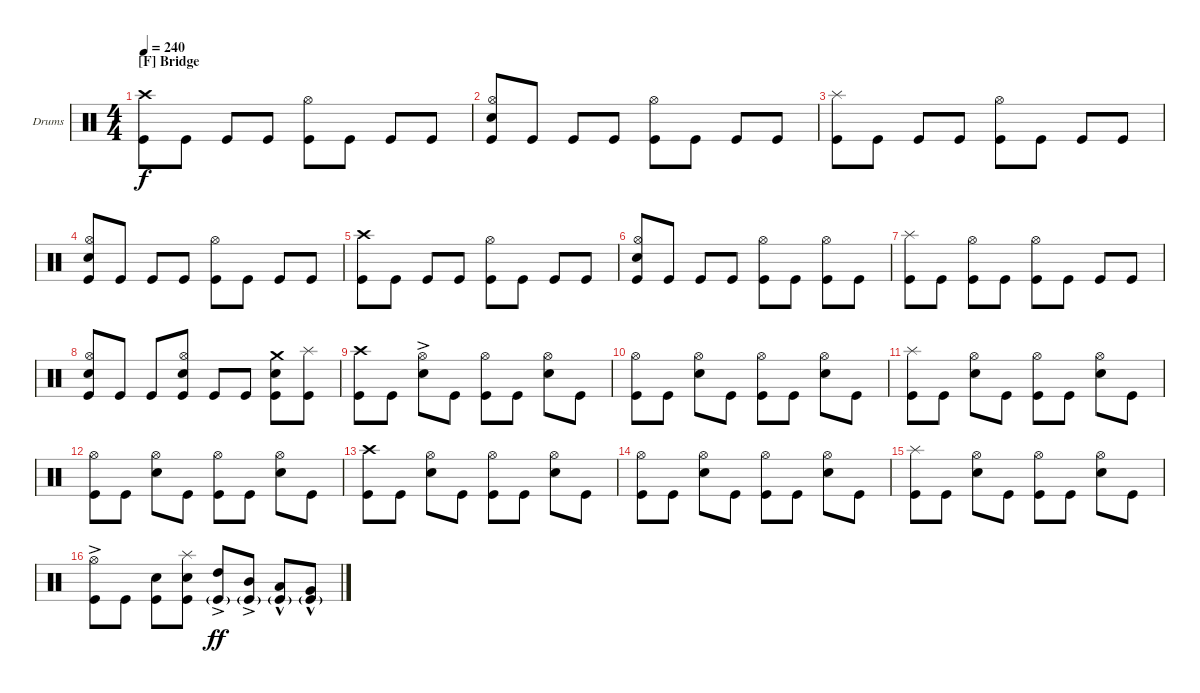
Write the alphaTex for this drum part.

\defaultSystemsLayout 4
\bracketExtendMode groupsimilarinstruments
\firstSystemTrackNameOrientation horizontal
\otherSystemsTrackNameOrientation horizontal
\track ("Drumkit" "Drums") {instrument percussion}
\staff {score}
\articulation defaults
\ts (4 4)
\section ("F" "Bridge")
\tempo 240
\clef neutral
\ks c
("Kick (hit)" "Crash high (hit)").8{dy f} "Kick (hit)".8 "Kick (hit)".8 "Kick (hit)".8 ("Kick (hit)" "Hi-Hat (open)").8 "Kick (hit)".8 "Kick (hit)".8 "Kick (hit)".8 |
("Kick (hit)" "Snare (hit) 2" "Hi-Hat (open)").8 "Kick (hit)".8 "Kick (hit)".8 "Kick (hit)".8 ("Kick (hit)" "Hi-Hat (open)").8 "Kick (hit)".8 "Kick (hit)".8 "Kick (hit)".8 |
("Splash (hit)" "Kick (hit)").8 "Kick (hit)".8 "Kick (hit)".8 "Kick (hit)".8 ("Kick (hit)" "Hi-Hat (open)").8 "Kick (hit)".8 "Kick (hit)".8 "Kick (hit)".8 |
("Kick (hit)" "Snare (hit) 2" "Hi-Hat (open)").8 "Kick (hit)".8 "Kick (hit)".8 "Kick (hit)".8 ("Kick (hit)" "Hi-Hat (open)").8 "Kick (hit)".8 "Kick (hit)".8 "Kick (hit)".8 |
("Kick (hit)" "Crash high (hit)").8 "Kick (hit)".8 "Kick (hit)".8 "Kick (hit)".8 ("Kick (hit)" "Hi-Hat (open)").8 "Kick (hit)".8 "Kick (hit)".8 "Kick (hit)".8 |
("Kick (hit)" "Snare (hit) 2" "Hi-Hat (open)").8 "Kick (hit)".8 "Kick (hit)".8 "Kick (hit)".8 ("Kick (hit)" "Hi-Hat (open)").8 "Kick (hit)".8 ("Kick (hit)" "Hi-Hat (open)").8 "Kick (hit)".8 |
("Splash (hit)" "Kick (hit)").8 "Kick (hit)".8 ("Kick (hit)" "Hi-Hat (open)").8 "Kick (hit)".8 ("Kick (hit)" "Hi-Hat (open)").8 "Kick (hit)".8 "Kick (hit)".8 "Kick (hit)".8 |
("Kick (hit)" "Snare (hit) 2" "Hi-Hat (open)").8 "Kick (hit)".8 "Kick (hit)".8 ("Kick (hit)" "Snare (hit) 2" "Hi-Hat (open)").8 "Kick (hit)".8 "Kick (hit)".8 ("Kick (hit)" "Snare (hit) 2" "Crash medium (hit)").8 ("Kick (hit)" "Splash (hit)").8 |
("Kick (hit)" "Crash high (hit)").8 "Kick (hit)".8 ("Snare (hit) 2" "Hi-Hat (open)"{ac}).8 "Kick (hit)".8 ("Kick (hit)" "Hi-Hat (open)").8 "Kick (hit)".8 ("Snare (hit) 2" "Hi-Hat (open)").8 "Kick (hit)".8 |
("Kick (hit)" "Hi-Hat (open)").8 "Kick (hit)".8 ("Snare (hit) 2" "Hi-Hat (open)").8 "Kick (hit)".8 ("Kick (hit)" "Hi-Hat (open)").8 "Kick (hit)".8 ("Snare (hit) 2" "Hi-Hat (open)").8 "Kick (hit)".8 |
("Kick (hit)" "Splash (hit)").8 "Kick (hit)".8 ("Snare (hit) 2" "Hi-Hat (open)").8 "Kick (hit)".8 ("Kick (hit)" "Hi-Hat (open)").8 "Kick (hit)".8 ("Snare (hit) 2" "Hi-Hat (open)").8 "Kick (hit)".8 |
("Kick (hit)" "Hi-Hat (open)").8 "Kick (hit)".8 ("Snare (hit) 2" "Hi-Hat (open)").8 "Kick (hit)".8 ("Kick (hit)" "Hi-Hat (open)").8 "Kick (hit)".8 ("Snare (hit) 2" "Hi-Hat (open)").8 "Kick (hit)".8 |
("Kick (hit)" "Crash high (hit)").8 "Kick (hit)".8 ("Snare (hit) 2" "Hi-Hat (open)").8 "Kick (hit)".8 ("Kick (hit)" "Hi-Hat (open)").8 "Kick (hit)".8 ("Snare (hit) 2" "Hi-Hat (open)").8 "Kick (hit)".8 |
("Kick (hit)" "Hi-Hat (open)").8 "Kick (hit)".8 ("Snare (hit) 2" "Hi-Hat (open)").8 "Kick (hit)".8 ("Kick (hit)" "Hi-Hat (open)").8 "Kick (hit)".8 ("Snare (hit) 2" "Hi-Hat (open)").8 "Kick (hit)".8 |
("Kick (hit)" "Splash (hit)").8 "Kick (hit)".8 ("Snare (hit) 2" "Hi-Hat (open)").8 "Kick (hit)".8 ("Kick (hit)" "Hi-Hat (open)").8 "Kick (hit)".8 ("Snare (hit) 2" "Hi-Hat (open)").8 "Kick (hit)".8 |
("Kick (hit)" "Hi-Hat (open)"{ac}).8 "Kick (hit)".8 ("Kick (hit)" "Snare (hit) 2").8 ("Kick (hit)" "Snare (hit) 2" "Splash (hit)").8 ("Kick (hit)"{g} "High Tom (hit)"{ac}).8{dy ff} ("Kick (hit)"{g} "Mid Tom (hit)"{ac}).8 ("Kick (hit)"{g} "Low Tom (hit)"{hac}).8 ("Kick (hit)"{g} "Very Low Tom (hit)"{hac}).8
